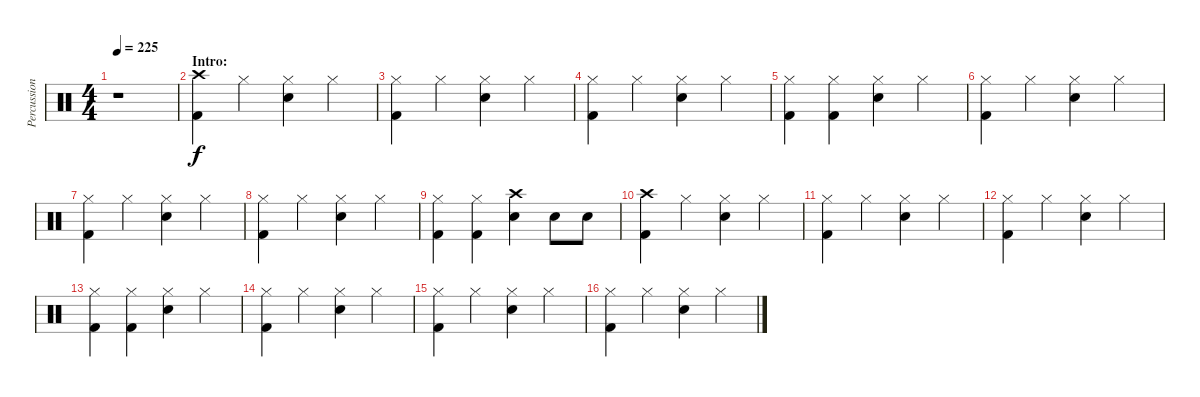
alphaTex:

\track ("Percussion" "Percussion") {instrument percussion}
\staff {score}
\articulation defaults
\ts (4 4)
\tempo 225
\clef neutral
\ks c
r.1{dy f} |
\section ("" "Intro:")
("Crash high (hit)" "Kick (hit) 2").4 "Hi-Hat (closed)".4 ("Hi-Hat (closed)" "Electric Snare (hit)").4 "Hi-Hat (closed)".4 |
("Hi-Hat (closed)" "Kick (hit) 2").4 "Hi-Hat (closed)".4 ("Hi-Hat (closed)" "Electric Snare (hit)").4 "Hi-Hat (closed)".4 |
("Hi-Hat (closed)" "Kick (hit) 2").4 "Hi-Hat (closed)".4 ("Hi-Hat (closed)" "Electric Snare (hit)").4 "Hi-Hat (closed)".4 |
("Hi-Hat (closed)" "Kick (hit) 2").4 ("Hi-Hat (closed)" "Kick (hit) 2").4 ("Hi-Hat (closed)" "Electric Snare (hit)").4 "Hi-Hat (closed)".4 |
("Hi-Hat (closed)" "Kick (hit) 2").4 "Hi-Hat (closed)".4 ("Hi-Hat (closed)" "Electric Snare (hit)").4 "Hi-Hat (closed)".4 |
("Hi-Hat (closed)" "Kick (hit) 2").4 "Hi-Hat (closed)".4 ("Hi-Hat (closed)" "Electric Snare (hit)").4 "Hi-Hat (closed)".4 |
("Hi-Hat (closed)" "Kick (hit) 2").4 "Hi-Hat (closed)".4 ("Hi-Hat (closed)" "Electric Snare (hit)").4 "Hi-Hat (closed)".4 |
("Hi-Hat (closed)" "Kick (hit) 2").4 ("Hi-Hat (closed)" "Kick (hit) 2").4 ("Crash high (hit)" "Electric Snare (hit)").4 "Electric Snare (hit)".8 "Electric Snare (hit)".8 |
("Crash high (hit)" "Kick (hit) 2").4 "Hi-Hat (closed)".4 ("Hi-Hat (closed)" "Electric Snare (hit)").4 "Hi-Hat (closed)".4 |
("Hi-Hat (closed)" "Kick (hit) 2").4 "Hi-Hat (closed)".4 ("Hi-Hat (closed)" "Electric Snare (hit)").4 "Hi-Hat (closed)".4 |
("Hi-Hat (closed)" "Kick (hit) 2").4 "Hi-Hat (closed)".4 ("Hi-Hat (closed)" "Electric Snare (hit)").4 "Hi-Hat (closed)".4 |
("Hi-Hat (closed)" "Kick (hit) 2").4 ("Hi-Hat (closed)" "Kick (hit) 2").4 ("Hi-Hat (closed)" "Electric Snare (hit)").4 "Hi-Hat (closed)".4 |
("Hi-Hat (closed)" "Kick (hit) 2").4 "Hi-Hat (closed)".4 ("Hi-Hat (closed)" "Electric Snare (hit)").4 "Hi-Hat (closed)".4 |
("Hi-Hat (closed)" "Kick (hit) 2").4 "Hi-Hat (closed)".4 ("Hi-Hat (closed)" "Electric Snare (hit)").4 "Hi-Hat (closed)".4 |
("Hi-Hat (closed)" "Kick (hit) 2").4 "Hi-Hat (closed)".4 ("Hi-Hat (closed)" "Electric Snare (hit)").4 "Hi-Hat (closed)".4
